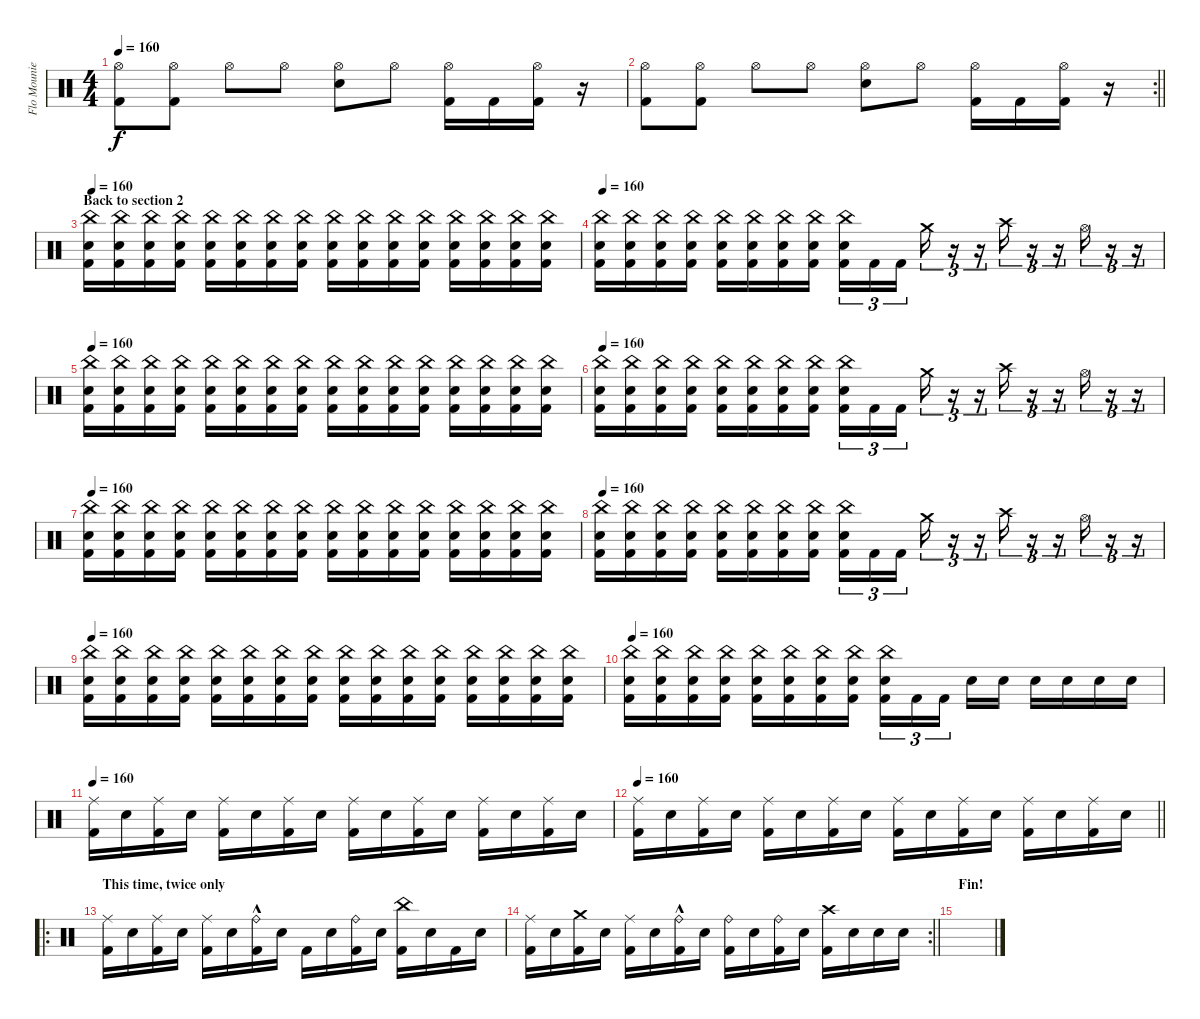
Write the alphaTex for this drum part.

\track ("Flo Mounier" "Flo Mounie") {instrument percussion}
\staff {score}
\articulation defaults
\ts (4 4)
\tempo 160
\clef neutral
\ks c
("Hi-Hat (open)" "Kick (hit) 2").8{dy f} ("Hi-Hat (open)" "Kick (hit) 2").8 "Hi-Hat (open)".8 "Hi-Hat (open)".8 ("Hi-Hat (open)" "Electric Snare (hit)").8 "Hi-Hat (open)".8 ("Hi-Hat (open)" "Kick (hit) 2").16 "Kick (hit) 2".16 ("Hi-Hat (open)" "Kick (hit) 2").16 r.16 |
\rc 2
\barLineRight lightlight
("Hi-Hat (open)" "Kick (hit) 2").8 ("Hi-Hat (open)" "Kick (hit) 2").8 "Hi-Hat (open)".8 "Hi-Hat (open)".8 ("Hi-Hat (open)" "Electric Snare (hit)").8 "Hi-Hat (open)".8 ("Hi-Hat (open)" "Kick (hit) 2").16 "Kick (hit) 2".16 ("Hi-Hat (open)" "Kick (hit) 2").16 r.16 |
\section ("" "Back to section 2")
\tempo 160
("China (hit)" "Electric Snare (hit)" "Kick (hit) 2").16 ("China (hit)" "Electric Snare (hit)" "Kick (hit) 2").16 ("China (hit)" "Electric Snare (hit)" "Kick (hit) 2").16 ("China (hit)" "Electric Snare (hit)" "Kick (hit) 2").16 ("China (hit)" "Electric Snare (hit)" "Kick (hit) 2").16 ("China (hit)" "Electric Snare (hit)" "Kick (hit) 2").16 ("China (hit)" "Electric Snare (hit)" "Kick (hit) 2").16 ("China (hit)" "Electric Snare (hit)" "Kick (hit) 2").16 ("China (hit)" "Electric Snare (hit)" "Kick (hit) 2").16 ("China (hit)" "Electric Snare (hit)" "Kick (hit) 2").16 ("China (hit)" "Electric Snare (hit)" "Kick (hit) 2").16 ("China (hit)" "Electric Snare (hit)" "Kick (hit) 2").16 ("China (hit)" "Electric Snare (hit)" "Kick (hit) 2").16 ("China (hit)" "Electric Snare (hit)" "Kick (hit) 2").16 ("China (hit)" "Electric Snare (hit)" "Kick (hit) 2").16 ("China (hit)" "Electric Snare (hit)" "Kick (hit) 2").16 |
\tempo 160
("China (hit)" "Electric Snare (hit)" "Kick (hit) 2").16 ("China (hit)" "Electric Snare (hit)" "Kick (hit) 2").16 ("China (hit)" "Electric Snare (hit)" "Kick (hit) 2").16 ("China (hit)" "Electric Snare (hit)" "Kick (hit) 2").16 ("China (hit)" "Electric Snare (hit)" "Kick (hit) 2").16 ("China (hit)" "Electric Snare (hit)" "Kick (hit) 2").16 ("China (hit)" "Electric Snare (hit)" "Kick (hit) 2").16 ("China (hit)" "Electric Snare (hit)" "Kick (hit) 2").16 ("China (hit)" "Electric Snare (hit)" "Kick (hit) 2").16{tu (3 2)} "Kick (hit) 2".16{tu (3 2)} "Kick (hit) 2".16{tu (3 2) beam splitsecondary} "Crash medium (hit)".16{tu (3 2)} r.16{tu (3 2)} r.16{tu (3 2)} "Crash high (hit)".16{tu (3 2)} r.16{tu (3 2)} r.16{tu (3 2)} "Hi-Hat (open)".16{tu (3 2)} r.16{tu (3 2)} r.16{tu (3 2)} |
\tempo 160
("China (hit)" "Electric Snare (hit)" "Kick (hit) 2").16 ("China (hit)" "Electric Snare (hit)" "Kick (hit) 2").16 ("China (hit)" "Electric Snare (hit)" "Kick (hit) 2").16 ("China (hit)" "Electric Snare (hit)" "Kick (hit) 2").16 ("China (hit)" "Electric Snare (hit)" "Kick (hit) 2").16 ("China (hit)" "Electric Snare (hit)" "Kick (hit) 2").16 ("China (hit)" "Electric Snare (hit)" "Kick (hit) 2").16 ("China (hit)" "Electric Snare (hit)" "Kick (hit) 2").16 ("China (hit)" "Electric Snare (hit)" "Kick (hit) 2").16 ("China (hit)" "Electric Snare (hit)" "Kick (hit) 2").16 ("China (hit)" "Electric Snare (hit)" "Kick (hit) 2").16 ("China (hit)" "Electric Snare (hit)" "Kick (hit) 2").16 ("China (hit)" "Electric Snare (hit)" "Kick (hit) 2").16 ("China (hit)" "Electric Snare (hit)" "Kick (hit) 2").16 ("China (hit)" "Electric Snare (hit)" "Kick (hit) 2").16 ("China (hit)" "Electric Snare (hit)" "Kick (hit) 2").16 |
\tempo 160
("China (hit)" "Electric Snare (hit)" "Kick (hit) 2").16 ("China (hit)" "Electric Snare (hit)" "Kick (hit) 2").16 ("China (hit)" "Electric Snare (hit)" "Kick (hit) 2").16 ("China (hit)" "Electric Snare (hit)" "Kick (hit) 2").16 ("China (hit)" "Electric Snare (hit)" "Kick (hit) 2").16 ("China (hit)" "Electric Snare (hit)" "Kick (hit) 2").16 ("China (hit)" "Electric Snare (hit)" "Kick (hit) 2").16 ("China (hit)" "Electric Snare (hit)" "Kick (hit) 2").16 ("China (hit)" "Electric Snare (hit)" "Kick (hit) 2").16{tu (3 2)} "Kick (hit) 2".16{tu (3 2)} "Kick (hit) 2".16{tu (3 2) beam splitsecondary} "Crash medium (hit)".16{tu (3 2)} r.16{tu (3 2)} r.16{tu (3 2)} "Crash high (hit)".16{tu (3 2)} r.16{tu (3 2)} r.16{tu (3 2)} "Hi-Hat (open)".16{tu (3 2)} r.16{tu (3 2)} r.16{tu (3 2)} |
\tempo 160
("China (hit)" "Electric Snare (hit)" "Kick (hit) 2").16 ("China (hit)" "Electric Snare (hit)" "Kick (hit) 2").16 ("China (hit)" "Electric Snare (hit)" "Kick (hit) 2").16 ("China (hit)" "Electric Snare (hit)" "Kick (hit) 2").16 ("China (hit)" "Electric Snare (hit)" "Kick (hit) 2").16 ("China (hit)" "Electric Snare (hit)" "Kick (hit) 2").16 ("China (hit)" "Electric Snare (hit)" "Kick (hit) 2").16 ("China (hit)" "Electric Snare (hit)" "Kick (hit) 2").16 ("China (hit)" "Electric Snare (hit)" "Kick (hit) 2").16 ("China (hit)" "Electric Snare (hit)" "Kick (hit) 2").16 ("China (hit)" "Electric Snare (hit)" "Kick (hit) 2").16 ("China (hit)" "Electric Snare (hit)" "Kick (hit) 2").16 ("China (hit)" "Electric Snare (hit)" "Kick (hit) 2").16 ("China (hit)" "Electric Snare (hit)" "Kick (hit) 2").16 ("China (hit)" "Electric Snare (hit)" "Kick (hit) 2").16 ("China (hit)" "Electric Snare (hit)" "Kick (hit) 2").16 |
\tempo 160
("China (hit)" "Electric Snare (hit)" "Kick (hit) 2").16 ("China (hit)" "Electric Snare (hit)" "Kick (hit) 2").16 ("China (hit)" "Electric Snare (hit)" "Kick (hit) 2").16 ("China (hit)" "Electric Snare (hit)" "Kick (hit) 2").16 ("China (hit)" "Electric Snare (hit)" "Kick (hit) 2").16 ("China (hit)" "Electric Snare (hit)" "Kick (hit) 2").16 ("China (hit)" "Electric Snare (hit)" "Kick (hit) 2").16 ("China (hit)" "Electric Snare (hit)" "Kick (hit) 2").16 ("China (hit)" "Electric Snare (hit)" "Kick (hit) 2").16{tu (3 2)} "Kick (hit) 2".16{tu (3 2)} "Kick (hit) 2".16{tu (3 2) beam splitsecondary} "Crash medium (hit)".16{tu (3 2)} r.16{tu (3 2)} r.16{tu (3 2)} "Crash high (hit)".16{tu (3 2)} r.16{tu (3 2)} r.16{tu (3 2)} "Hi-Hat (open)".16{tu (3 2)} r.16{tu (3 2)} r.16{tu (3 2)} |
\tempo 160
("China (hit)" "Electric Snare (hit)" "Kick (hit) 2").16 ("China (hit)" "Electric Snare (hit)" "Kick (hit) 2").16 ("China (hit)" "Electric Snare (hit)" "Kick (hit) 2").16 ("China (hit)" "Electric Snare (hit)" "Kick (hit) 2").16 ("China (hit)" "Electric Snare (hit)" "Kick (hit) 2").16 ("China (hit)" "Electric Snare (hit)" "Kick (hit) 2").16 ("China (hit)" "Electric Snare (hit)" "Kick (hit) 2").16 ("China (hit)" "Electric Snare (hit)" "Kick (hit) 2").16 ("China (hit)" "Electric Snare (hit)" "Kick (hit) 2").16 ("China (hit)" "Electric Snare (hit)" "Kick (hit) 2").16 ("China (hit)" "Electric Snare (hit)" "Kick (hit) 2").16 ("China (hit)" "Electric Snare (hit)" "Kick (hit) 2").16 ("China (hit)" "Electric Snare (hit)" "Kick (hit) 2").16 ("China (hit)" "Electric Snare (hit)" "Kick (hit) 2").16 ("China (hit)" "Electric Snare (hit)" "Kick (hit) 2").16 ("China (hit)" "Electric Snare (hit)" "Kick (hit) 2").16 |
\tempo 160
("China (hit)" "Electric Snare (hit)" "Kick (hit) 2").16 ("China (hit)" "Electric Snare (hit)" "Kick (hit) 2").16 ("China (hit)" "Electric Snare (hit)" "Kick (hit) 2").16 ("China (hit)" "Electric Snare (hit)" "Kick (hit) 2").16 ("China (hit)" "Electric Snare (hit)" "Kick (hit) 2").16 ("China (hit)" "Electric Snare (hit)" "Kick (hit) 2").16 ("China (hit)" "Electric Snare (hit)" "Kick (hit) 2").16 ("China (hit)" "Electric Snare (hit)" "Kick (hit) 2").16 ("China (hit)" "Electric Snare (hit)" "Kick (hit) 2").16{tu (3 2)} "Kick (hit) 2".16{tu (3 2)} "Kick (hit) 2".16{tu (3 2) beam splitsecondary} "Electric Snare (hit)".16 "Electric Snare (hit)".16 "Electric Snare (hit)".16 "Electric Snare (hit)".16 "Electric Snare (hit)".16 "Electric Snare (hit)".16 |
\tempo 160
("Ride (middle)" "Kick (hit) 2").16 "Electric Snare (hit)".16 ("Ride (middle)" "Kick (hit) 2").16 "Electric Snare (hit)".16 ("Ride (middle)" "Kick (hit) 2").16 "Electric Snare (hit)".16 ("Ride (middle)" "Kick (hit) 2").16 "Electric Snare (hit)".16 ("Ride (middle)" "Kick (hit) 2").16 "Electric Snare (hit)".16 ("Ride (middle)" "Kick (hit) 2").16 "Electric Snare (hit)".16 ("Ride (middle)" "Kick (hit) 2").16 "Electric Snare (hit)".16 ("Ride (middle)" "Kick (hit) 2").16 "Electric Snare (hit)".16 |
\tempo 160
\barLineRight lightlight
("Ride (middle)" "Kick (hit) 2").16 "Electric Snare (hit)".16 ("Ride (middle)" "Kick (hit) 2").16 "Electric Snare (hit)".16 ("Ride (middle)" "Kick (hit) 2").16 "Electric Snare (hit)".16 ("Ride (middle)" "Kick (hit) 2").16 "Electric Snare (hit)".16 ("Ride (middle)" "Kick (hit) 2").16 "Electric Snare (hit)".16 ("Ride (middle)" "Kick (hit) 2").16 "Electric Snare (hit)".16 ("Ride (middle)" "Kick (hit) 2").16 "Electric Snare (hit)".16 ("Ride (middle)" "Kick (hit) 2").16 "Electric Snare (hit)".16 |
\ro
\section ("" "This time, twice only")
("Ride (middle)" "Kick (hit) 2").16 "Electric Snare (hit)".16 ("Ride (middle)" "Kick (hit) 2").16 "Electric Snare (hit)".16 ("Ride (middle)" "Kick (hit) 2").16 "Electric Snare (hit)".16 ("Ride (bell)"{hac} "Kick (hit) 2").16 "Electric Snare (hit)".16 "Kick (hit) 2".16 "Electric Snare (hit)".16 ("Ride (bell)" "Kick (hit) 2").16 "Electric Snare (hit)".16 ("China (hit)" "Kick (hit) 2").16 "Electric Snare (hit)".16 "Kick (hit) 2".16 "Electric Snare (hit)".16 |
\rc 2
\barLineRight lightlight
("Ride (middle)" "Kick (hit) 2").16 "Electric Snare (hit)".16 ("Crash medium (hit)" "Kick (hit) 2").16 "Electric Snare (hit)".16 ("Ride (middle)" "Kick (hit) 2").16 "Electric Snare (hit)".16 ("Ride (bell)"{hac} "Kick (hit) 2").16 "Electric Snare (hit)".16 ("Ride (bell)" "Kick (hit) 2").16 "Electric Snare (hit)".16 ("Ride (bell)" "Kick (hit) 2").16 "Electric Snare (hit)".16 ("Crash high (hit)" "Kick (hit) 2").16 "Electric Snare (hit)".16 "Electric Snare (hit)".16 "Electric Snare (hit)".16 |
\section ("" "Fin!")
